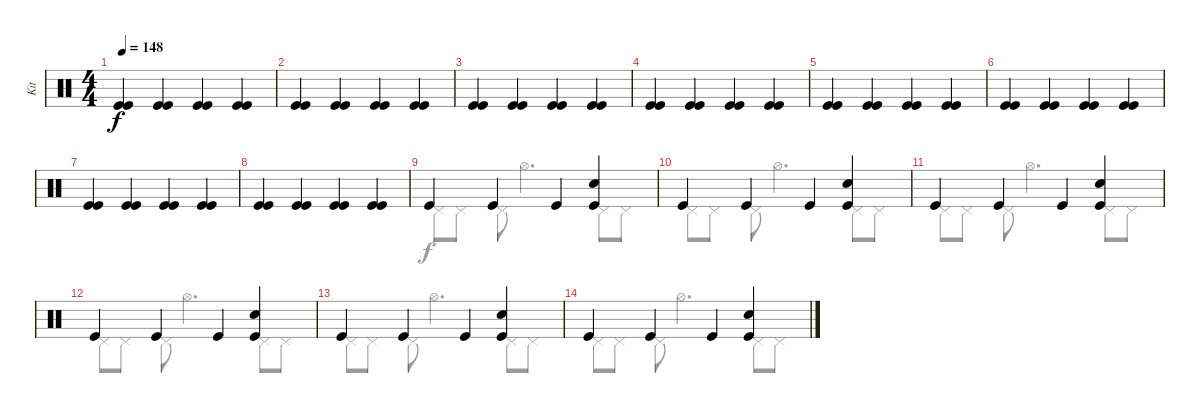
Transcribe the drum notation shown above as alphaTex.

\track ("Kit" "Kit") {instrument percussion}
\staff {score}
\articulation defaults
\voice
\ts (4 4)
\tempo 148
\clef neutral
\ks c
("Kick (hit)" "Kick (hit)").4{dy f} ("Kick (hit)" "Kick (hit)").4 ("Kick (hit)" "Kick (hit)").4 ("Kick (hit)" "Kick (hit)").4 |
("Kick (hit)" "Kick (hit)").4 ("Kick (hit)" "Kick (hit)").4 ("Kick (hit)" "Kick (hit)").4 ("Kick (hit)" "Kick (hit)").4 |
("Kick (hit)" "Kick (hit)").4 ("Kick (hit)" "Kick (hit)").4 ("Kick (hit)" "Kick (hit)").4 ("Kick (hit)" "Kick (hit)").4 |
("Kick (hit)" "Kick (hit)").4 ("Kick (hit)" "Kick (hit)").4 ("Kick (hit)" "Kick (hit)").4 ("Kick (hit)" "Kick (hit)").4 |
("Kick (hit)" "Kick (hit)").4 ("Kick (hit)" "Kick (hit)").4 ("Kick (hit)" "Kick (hit)").4 ("Kick (hit)" "Kick (hit)").4 |
("Kick (hit)" "Kick (hit)").4 ("Kick (hit)" "Kick (hit)").4 ("Kick (hit)" "Kick (hit)").4 ("Kick (hit)" "Kick (hit)").4 |
("Kick (hit)" "Kick (hit)").4 ("Kick (hit)" "Kick (hit)").4 ("Kick (hit)" "Kick (hit)").4 ("Kick (hit)" "Kick (hit)").4 |
("Kick (hit)" "Kick (hit)").4 ("Kick (hit)" "Kick (hit)").4 ("Kick (hit)" "Kick (hit)").4 ("Kick (hit)" "Kick (hit)").4 |
"Kick (hit)".4 "Kick (hit)".4 "Kick (hit)".4 ("Snare (hit) 2" "Kick (hit)").4 |
"Kick (hit)".4 "Kick (hit)".4 "Kick (hit)".4 ("Snare (hit) 2" "Kick (hit)").4 |
"Kick (hit)".4 "Kick (hit)".4 "Kick (hit)".4 ("Snare (hit) 2" "Kick (hit)").4 |
"Kick (hit)".4 "Kick (hit)".4 "Kick (hit)".4 ("Snare (hit) 2" "Kick (hit)").4 |
"Kick (hit)".4 "Kick (hit)".4 "Kick (hit)".4 ("Snare (hit) 2" "Kick (hit)").4 |
"Kick (hit)".4 "Kick (hit)".4 "Kick (hit)".4 ("Snare (hit) 2" "Kick (hit)").4 |
|
\voice
\clef neutral
\ottava regular
\simile none
\ks c
|
|
|
|
|
|
|
|
"Pedal Hi-Hat (hit)".8 "Pedal Hi-Hat (hit)".8 "Pedal Hi-Hat (hit)".8 "Hi-Hat (open)".4{d} "Pedal Hi-Hat (hit)".8 "Pedal Hi-Hat (hit)".8 |
"Pedal Hi-Hat (hit)".8 "Pedal Hi-Hat (hit)".8 "Pedal Hi-Hat (hit)".8 "Hi-Hat (open)".4{d} "Pedal Hi-Hat (hit)".8 "Pedal Hi-Hat (hit)".8 |
"Pedal Hi-Hat (hit)".8 "Pedal Hi-Hat (hit)".8 "Pedal Hi-Hat (hit)".8 "Hi-Hat (open)".4{d} "Pedal Hi-Hat (hit)".8 "Pedal Hi-Hat (hit)".8 |
"Pedal Hi-Hat (hit)".8 "Pedal Hi-Hat (hit)".8 "Pedal Hi-Hat (hit)".8 "Hi-Hat (open)".4{d} "Pedal Hi-Hat (hit)".8 "Pedal Hi-Hat (hit)".8 |
"Pedal Hi-Hat (hit)".8 "Pedal Hi-Hat (hit)".8 "Pedal Hi-Hat (hit)".8 "Hi-Hat (open)".4{d} "Pedal Hi-Hat (hit)".8 "Pedal Hi-Hat (hit)".8 |
"Pedal Hi-Hat (hit)".8 "Pedal Hi-Hat (hit)".8 "Pedal Hi-Hat (hit)".8 "Hi-Hat (open)".4{d} "Pedal Hi-Hat (hit)".8 "Pedal Hi-Hat (hit)".8 |
|
